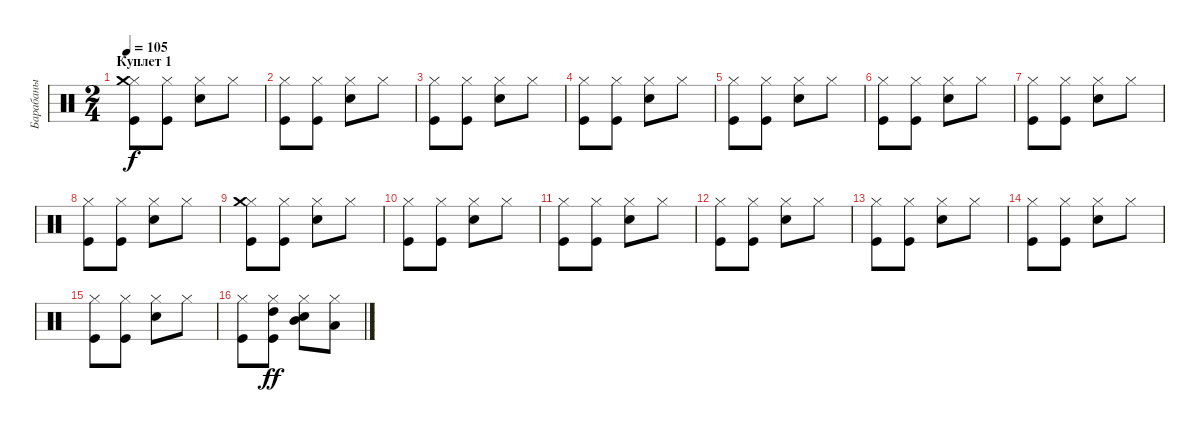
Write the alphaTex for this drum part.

\track ("Барабаны" "Барабаны") {instrument percussion}
\staff {score}
\articulation defaults
\ts (2 4)
\section ("" "Куплет 1")
\tempo 105
\clef neutral
\ks c
("Kick (hit)" "Hi-Hat (closed)" "Crash medium (hit)").8{dy f} ("Kick (hit)" "Hi-Hat (closed)").8 ("Snare (hit) 2" "Hi-Hat (closed)").8 "Hi-Hat (closed)".8 |
("Kick (hit)" "Hi-Hat (closed)").8 ("Kick (hit)" "Hi-Hat (closed)").8 ("Snare (hit) 2" "Hi-Hat (closed)").8 "Hi-Hat (closed)".8 |
("Kick (hit)" "Hi-Hat (closed)").8 ("Kick (hit)" "Hi-Hat (closed)").8 ("Snare (hit) 2" "Hi-Hat (closed)").8 "Hi-Hat (closed)".8 |
("Kick (hit)" "Hi-Hat (closed)").8 ("Kick (hit)" "Hi-Hat (closed)").8 ("Snare (hit) 2" "Hi-Hat (closed)").8 "Hi-Hat (closed)".8 |
("Kick (hit)" "Hi-Hat (closed)").8 ("Kick (hit)" "Hi-Hat (closed)").8 ("Snare (hit) 2" "Hi-Hat (closed)").8 "Hi-Hat (closed)".8 |
("Kick (hit)" "Hi-Hat (closed)").8 ("Kick (hit)" "Hi-Hat (closed)").8 ("Snare (hit) 2" "Hi-Hat (closed)").8 "Hi-Hat (closed)".8 |
("Kick (hit)" "Hi-Hat (closed)").8 ("Kick (hit)" "Hi-Hat (closed)").8 ("Snare (hit) 2" "Hi-Hat (closed)").8 "Hi-Hat (closed)".8 |
("Kick (hit)" "Hi-Hat (closed)").8 ("Kick (hit)" "Hi-Hat (closed)").8 ("Snare (hit) 2" "Hi-Hat (closed)").8 "Hi-Hat (closed)".8 |
("Kick (hit)" "Hi-Hat (closed)" "Crash medium (hit)").8 ("Kick (hit)" "Hi-Hat (closed)").8 ("Snare (hit) 2" "Hi-Hat (closed)").8 "Hi-Hat (closed)".8 |
("Kick (hit)" "Hi-Hat (closed)").8 ("Kick (hit)" "Hi-Hat (closed)").8 ("Snare (hit) 2" "Hi-Hat (closed)").8 "Hi-Hat (closed)".8 |
("Kick (hit)" "Hi-Hat (closed)").8 ("Kick (hit)" "Hi-Hat (closed)").8 ("Snare (hit) 2" "Hi-Hat (closed)").8 "Hi-Hat (closed)".8 |
("Kick (hit)" "Hi-Hat (closed)").8 ("Kick (hit)" "Hi-Hat (closed)").8 ("Snare (hit) 2" "Hi-Hat (closed)").8 "Hi-Hat (closed)".8 |
("Kick (hit)" "Hi-Hat (closed)").8 ("Kick (hit)" "Hi-Hat (closed)").8 ("Snare (hit) 2" "Hi-Hat (closed)").8 "Hi-Hat (closed)".8 |
("Kick (hit)" "Hi-Hat (closed)").8 ("Kick (hit)" "Hi-Hat (closed)").8 ("Snare (hit) 2" "Hi-Hat (closed)").8 "Hi-Hat (closed)".8 |
("Kick (hit)" "Hi-Hat (closed)").8 ("Kick (hit)" "Hi-Hat (closed)").8 ("Snare (hit) 2" "Hi-Hat (closed)").8 "Hi-Hat (closed)".8 |
("Kick (hit)" "Hi-Hat (closed)").8 ("Kick (hit)" "Hi-Hat (closed)" "High Tom (hit)").8{dy ff} ("Snare (hit) 2" "Hi-Hat (closed)" "Mid Tom (hit)").8 ("Hi-Hat (closed)" "Low Tom (hit)").8
